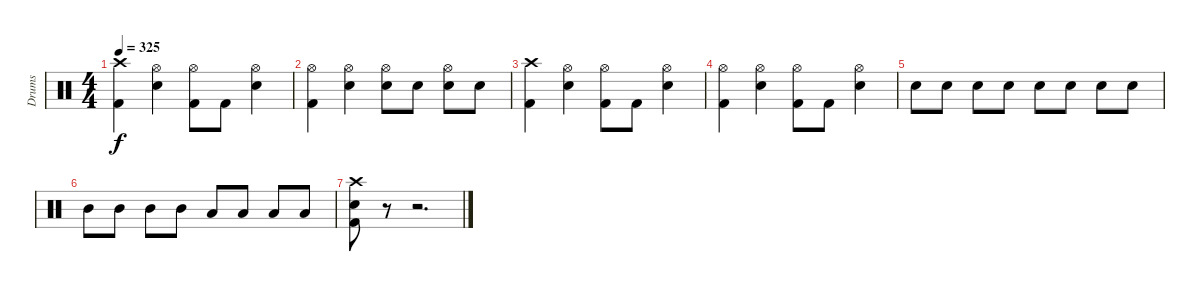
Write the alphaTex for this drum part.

\track ("Drums" "Drums") {instrument percussion}
\staff {score}
\articulation defaults
\ts (4 4)
\tempo 325
\clef neutral
\ks c
("Crash high (hit)" "Kick (hit) 2").4{dy f} ("Electric Snare (hit)" "Hi-Hat (open)").4 ("Kick (hit) 2" "Hi-Hat (open)").8 "Kick (hit) 2".8 ("Electric Snare (hit)" "Hi-Hat (open)").4 |
("Kick (hit) 2" "Hi-Hat (open)").4 ("Electric Snare (hit)" "Hi-Hat (open)").4 ("Electric Snare (hit)" "Hi-Hat (open)").8 "Electric Snare (hit)".8 ("Electric Snare (hit)" "Hi-Hat (open)").8 "Electric Snare (hit)".8 |
("Crash high (hit)" "Kick (hit) 2").4 ("Electric Snare (hit)" "Hi-Hat (open)").4 ("Kick (hit) 2" "Hi-Hat (open)").8 "Kick (hit) 2".8 ("Electric Snare (hit)" "Hi-Hat (open)").4 |
("Kick (hit) 2" "Hi-Hat (open)").4 ("Hi-Hat (open)" "Electric Snare (hit)").4 ("Hi-Hat (open)" "Kick (hit) 2").8 "Kick (hit) 2".8 ("Hi-Hat (open)" "Electric Snare (hit)").4 |
"Electric Snare (hit)".8 "Electric Snare (hit)".8 "Electric Snare (hit)".8 "Electric Snare (hit)".8 "Electric Snare (hit)".8 "Electric Snare (hit)".8 "Electric Snare (hit)".8 "Electric Snare (hit)".8 |
"Mid Tom (hit)".8 "Mid Tom (hit)".8 "Mid Tom (hit)".8 "Mid Tom (hit)".8 "Low Tom (hit)".8 "Low Tom (hit)".8 "Low Tom (hit)".8 "Low Tom (hit)".8 |
("Crash high (hit)" "Electric Snare (hit)" "Kick (hit) 2").8 r.8 r.2{d}
